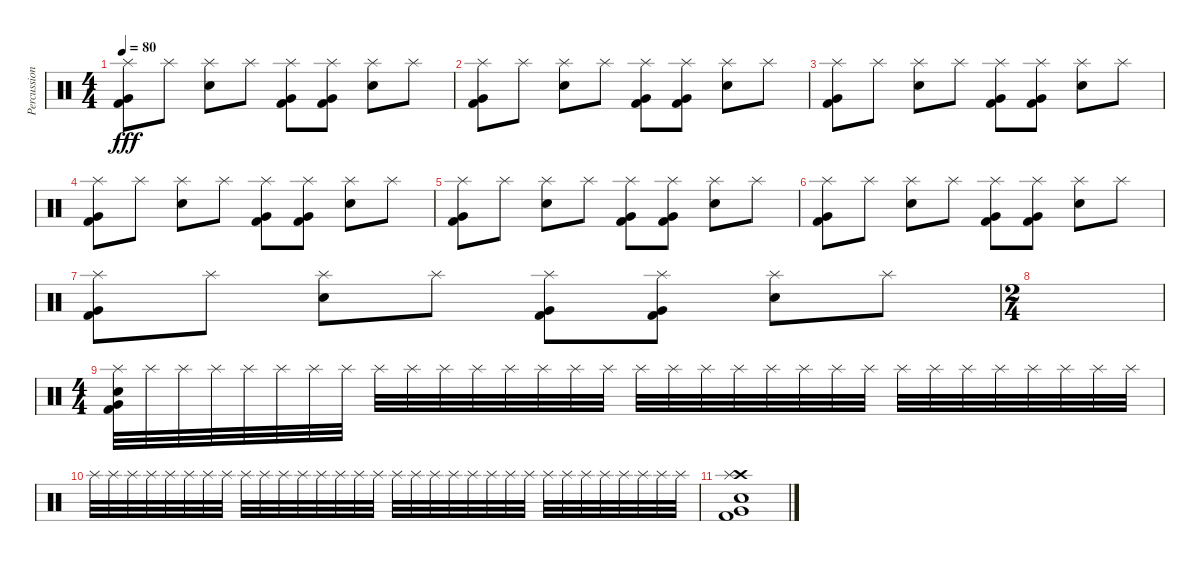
\track ("Percussion" "Percussion") {instrument percussion}
\staff {score}
\articulation defaults
\ts (4 4)
\tempo 80
\clef neutral
\ks c
("Splash (hit)" "Very Low Tom (hit)" "Kick (hit) 2").8{dy fff} "Splash (hit)".8 ("Splash (hit)" "Electric Snare (hit)").8 "Splash (hit)".8 ("Splash (hit)" "Very Low Tom (hit)" "Kick (hit) 2").8 ("Splash (hit)" "Very Low Tom (hit)" "Kick (hit) 2").8 ("Splash (hit)" "Electric Snare (hit)").8 "Splash (hit)".8 |
("Splash (hit)" "Very Low Tom (hit)" "Kick (hit) 2").8 "Splash (hit)".8 ("Splash (hit)" "Electric Snare (hit)").8 "Splash (hit)".8 ("Splash (hit)" "Very Low Tom (hit)" "Kick (hit) 2").8 ("Splash (hit)" "Very Low Tom (hit)" "Kick (hit) 2").8 ("Splash (hit)" "Electric Snare (hit)").8 "Splash (hit)".8 |
("Splash (hit)" "Very Low Tom (hit)" "Kick (hit) 2").8 "Splash (hit)".8 ("Splash (hit)" "Electric Snare (hit)").8 "Splash (hit)".8 ("Splash (hit)" "Very Low Tom (hit)" "Kick (hit) 2").8 ("Splash (hit)" "Very Low Tom (hit)" "Kick (hit) 2").8 ("Splash (hit)" "Electric Snare (hit)").8 "Splash (hit)".8 |
("Splash (hit)" "Very Low Tom (hit)" "Kick (hit) 2").8 "Splash (hit)".8 ("Splash (hit)" "Electric Snare (hit)").8 "Splash (hit)".8 ("Splash (hit)" "Very Low Tom (hit)" "Kick (hit) 2").8 ("Splash (hit)" "Very Low Tom (hit)" "Kick (hit) 2").8 ("Splash (hit)" "Electric Snare (hit)").8 "Splash (hit)".8 |
("Splash (hit)" "Very Low Tom (hit)" "Kick (hit) 2").8 "Splash (hit)".8 ("Splash (hit)" "Electric Snare (hit)").8 "Splash (hit)".8 ("Splash (hit)" "Very Low Tom (hit)" "Kick (hit) 2").8 ("Splash (hit)" "Very Low Tom (hit)" "Kick (hit) 2").8 ("Splash (hit)" "Electric Snare (hit)").8 "Splash (hit)".8 |
("Splash (hit)" "Very Low Tom (hit)" "Kick (hit) 2").8 "Splash (hit)".8 ("Splash (hit)" "Electric Snare (hit)").8 "Splash (hit)".8 ("Splash (hit)" "Very Low Tom (hit)" "Kick (hit) 2").8 ("Splash (hit)" "Very Low Tom (hit)" "Kick (hit) 2").8 ("Splash (hit)" "Electric Snare (hit)").8 "Splash (hit)".8 |
("Splash (hit)" "Very Low Tom (hit)" "Kick (hit) 2").8 "Splash (hit)".8 ("Splash (hit)" "Electric Snare (hit)").8 "Splash (hit)".8 ("Splash (hit)" "Very Low Tom (hit)" "Kick (hit) 2").8 ("Splash (hit)" "Very Low Tom (hit)" "Kick (hit) 2").8 ("Splash (hit)" "Electric Snare (hit)").8 "Splash (hit)".8 |
\ts (2 4)
|
\ts (4 4)
("Splash (hit)" "Electric Snare (hit)" "Very Low Tom (hit)" "Kick (hit) 2").32 "Splash (hit)".32 "Splash (hit)".32 "Splash (hit)".32 "Splash (hit)".32 "Splash (hit)".32 "Splash (hit)".32 "Splash (hit)".32 "Splash (hit)".32 "Splash (hit)".32 "Splash (hit)".32 "Splash (hit)".32 "Splash (hit)".32 "Splash (hit)".32 "Splash (hit)".32 "Splash (hit)".32 "Splash (hit)".32 "Splash (hit)".32 "Splash (hit)".32 "Splash (hit)".32 "Splash (hit)".32 "Splash (hit)".32 "Splash (hit)".32 "Splash (hit)".32 "Splash (hit)".32 "Splash (hit)".32 "Splash (hit)".32 "Splash (hit)".32 "Splash (hit)".32 "Splash (hit)".32 "Splash (hit)".32 "Splash (hit)".32 |
"Splash (hit)".32 "Splash (hit)".32 "Splash (hit)".32 "Splash (hit)".32 "Splash (hit)".32 "Splash (hit)".32 "Splash (hit)".32 "Splash (hit)".32 "Splash (hit)".32 "Splash (hit)".32 "Splash (hit)".32 "Splash (hit)".32 "Splash (hit)".32 "Splash (hit)".32 "Splash (hit)".32 "Splash (hit)".32 "Splash (hit)".32 "Splash (hit)".32 "Splash (hit)".32 "Splash (hit)".32 "Splash (hit)".32 "Splash (hit)".32 "Splash (hit)".32 "Splash (hit)".32 "Splash (hit)".32 "Splash (hit)".32 "Splash (hit)".32 "Splash (hit)".32 "Splash (hit)".32 "Splash (hit)".32 "Splash (hit)".32 "Splash (hit)".32 |
("Crash high (hit)" "Splash (hit)" "Electric Snare (hit)" "Very Low Tom (hit)" "Kick (hit) 2").1
